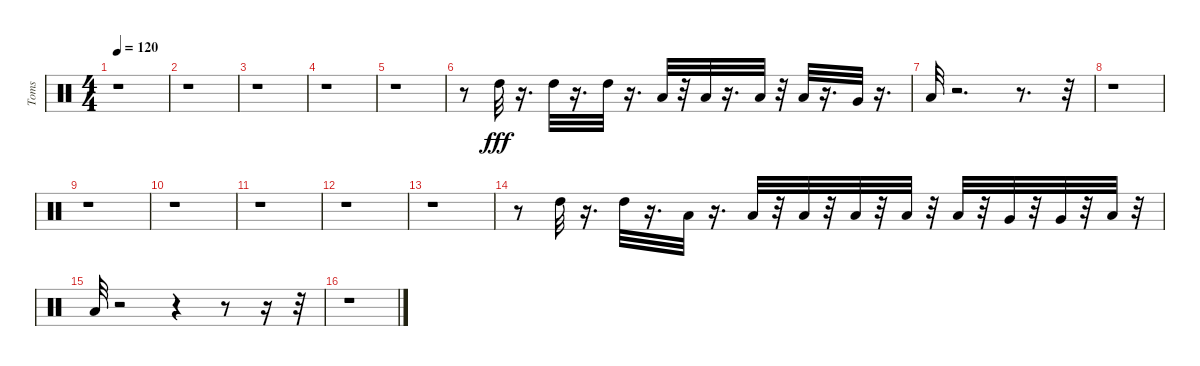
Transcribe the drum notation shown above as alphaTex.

\track ("Toms" "Toms") {instrument percussion}
\staff {score}
\articulation defaults
\ts (4 4)
\tempo 120
\clef neutral
\ks c
r.1{dy fff} |
r.1 |
r.1 |
r.1 |
r.1 |
r.8 "High Tom (hit)".32 r.16{d} "High Tom (hit)".32 r.16{d} "High Tom (hit)".32 r.16{d} "Low Tom (hit)".32 r.32 "Low Tom (hit)".32 r.16{d} "Low Tom (hit)".32 r.32 "Low Tom (hit)".32 r.16{d} "Very Low Tom (hit)".32 r.16{d} |
"Low Floor Tom (hit)".32 r.2{d} r.8{d} r.32 |
r.1 |
r.1 |
r.1 |
r.1 |
r.1 |
r.1 |
r.8 "High Tom (hit)".32 r.16{d} "High Tom (hit)".32 r.16{d} "Low Tom (hit)".32 r.16{d} "Low Tom (hit)".32 r.32 "Low Tom (hit)".32 r.32 "Low Tom (hit)".32 r.32 "Low Tom (hit)".32 r.32 "Low Tom (hit)".32 r.32 "Very Low Tom (hit)".32 r.32 "Very Low Tom (hit)".32 r.32 "Low Floor Tom (hit)".32 r.32 |
"Low Floor Tom (hit)".32 r.2 r.4 r.8 r.16 r.32 |
r.1
